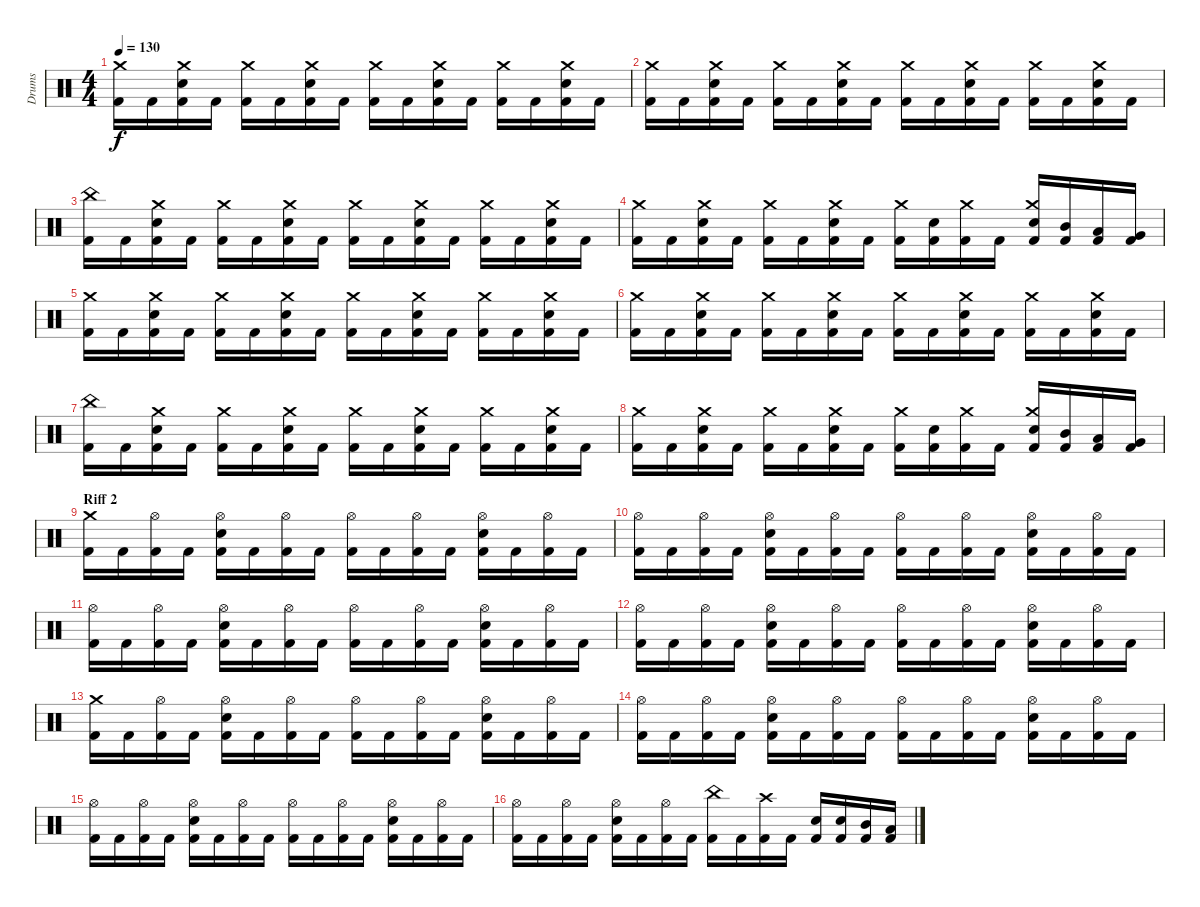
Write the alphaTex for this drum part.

\track ("Drums" "Drums") {instrument percussion}
\staff {score}
\articulation defaults
\ts (4 4)
\tempo 130
\clef neutral
\ks c
("Kick (hit) 2" "Crash medium (hit)").16{dy f} "Kick (hit) 2".16 ("Kick (hit) 2" "Snare (hit) 2" "Crash medium (hit)").16 "Kick (hit) 2".16 ("Kick (hit) 2" "Crash medium (hit)").16 "Kick (hit) 2".16 ("Kick (hit) 2" "Snare (hit) 2" "Crash medium (hit)").16 "Kick (hit) 2".16 ("Kick (hit) 2" "Crash medium (hit)").16 "Kick (hit) 2".16 ("Kick (hit) 2" "Snare (hit) 2" "Crash medium (hit)").16 "Kick (hit) 2".16 ("Kick (hit) 2" "Crash medium (hit)").16 "Kick (hit) 2".16 ("Kick (hit) 2" "Snare (hit) 2" "Crash medium (hit)").16 "Kick (hit) 2".16 |
("Kick (hit) 2" "Crash medium (hit)").16 "Kick (hit) 2".16 ("Kick (hit) 2" "Snare (hit) 2" "Crash medium (hit)").16 "Kick (hit) 2".16 ("Kick (hit) 2" "Crash medium (hit)").16 "Kick (hit) 2".16 ("Kick (hit) 2" "Snare (hit) 2" "Crash medium (hit)").16 "Kick (hit) 2".16 ("Kick (hit) 2" "Crash medium (hit)").16 "Kick (hit) 2".16 ("Kick (hit) 2" "Snare (hit) 2" "Crash medium (hit)").16 "Kick (hit) 2".16 ("Kick (hit) 2" "Crash medium (hit)").16 "Kick (hit) 2".16 ("Kick (hit) 2" "Snare (hit) 2" "Crash medium (hit)").16 "Kick (hit) 2".16 |
("Kick (hit) 2" "China (hit)").16 "Kick (hit) 2".16 ("Kick (hit) 2" "Snare (hit) 2" "Crash medium (hit)").16 "Kick (hit) 2".16 ("Kick (hit) 2" "Crash medium (hit)").16 "Kick (hit) 2".16 ("Kick (hit) 2" "Snare (hit) 2" "Crash medium (hit)").16 "Kick (hit) 2".16 ("Kick (hit) 2" "Crash medium (hit)").16 "Kick (hit) 2".16 ("Kick (hit) 2" "Snare (hit) 2" "Crash medium (hit)").16 "Kick (hit) 2".16 ("Kick (hit) 2" "Crash medium (hit)").16 "Kick (hit) 2".16 ("Kick (hit) 2" "Snare (hit) 2" "Crash medium (hit)").16 "Kick (hit) 2".16 |
("Kick (hit) 2" "Crash medium (hit)").16 "Kick (hit) 2".16 ("Kick (hit) 2" "Snare (hit) 2" "Crash medium (hit)").16 "Kick (hit) 2".16 ("Kick (hit) 2" "Crash medium (hit)").16 "Kick (hit) 2".16 ("Kick (hit) 2" "Snare (hit) 2" "Crash medium (hit)").16 "Kick (hit) 2".16 ("Kick (hit) 2" "Crash medium (hit)").16 ("Kick (hit) 2" "Snare (hit) 2").16 ("Kick (hit) 2" "Crash medium (hit)").16 "Kick (hit) 2".16 ("Kick (hit) 2" "Snare (hit) 2" "Crash medium (hit)").16 ("Kick (hit) 2" "Mid Tom (hit)").16 ("Kick (hit) 2" "Low Tom (hit)").16 ("Kick (hit) 2" "Very Low Tom (hit)").16 |
("Kick (hit) 2" "Crash medium (hit)").16 "Kick (hit) 2".16 ("Kick (hit) 2" "Snare (hit) 2" "Crash medium (hit)").16 "Kick (hit) 2".16 ("Kick (hit) 2" "Crash medium (hit)").16 "Kick (hit) 2".16 ("Kick (hit) 2" "Snare (hit) 2" "Crash medium (hit)").16 "Kick (hit) 2".16 ("Kick (hit) 2" "Crash medium (hit)").16 "Kick (hit) 2".16 ("Kick (hit) 2" "Snare (hit) 2" "Crash medium (hit)").16 "Kick (hit) 2".16 ("Kick (hit) 2" "Crash medium (hit)").16 "Kick (hit) 2".16 ("Kick (hit) 2" "Snare (hit) 2" "Crash medium (hit)").16 "Kick (hit) 2".16 |
("Kick (hit) 2" "Crash medium (hit)").16 "Kick (hit) 2".16 ("Kick (hit) 2" "Snare (hit) 2" "Crash medium (hit)").16 "Kick (hit) 2".16 ("Kick (hit) 2" "Crash medium (hit)").16 "Kick (hit) 2".16 ("Kick (hit) 2" "Snare (hit) 2" "Crash medium (hit)").16 "Kick (hit) 2".16 ("Kick (hit) 2" "Crash medium (hit)").16 "Kick (hit) 2".16 ("Kick (hit) 2" "Snare (hit) 2" "Crash medium (hit)").16 "Kick (hit) 2".16 ("Kick (hit) 2" "Crash medium (hit)").16 "Kick (hit) 2".16 ("Kick (hit) 2" "Snare (hit) 2" "Crash medium (hit)").16 "Kick (hit) 2".16 |
("Kick (hit) 2" "China (hit)").16 "Kick (hit) 2".16 ("Kick (hit) 2" "Snare (hit) 2" "Crash medium (hit)").16 "Kick (hit) 2".16 ("Kick (hit) 2" "Crash medium (hit)").16 "Kick (hit) 2".16 ("Kick (hit) 2" "Snare (hit) 2" "Crash medium (hit)").16 "Kick (hit) 2".16 ("Kick (hit) 2" "Crash medium (hit)").16 "Kick (hit) 2".16 ("Kick (hit) 2" "Snare (hit) 2" "Crash medium (hit)").16 "Kick (hit) 2".16 ("Kick (hit) 2" "Crash medium (hit)").16 "Kick (hit) 2".16 ("Kick (hit) 2" "Snare (hit) 2" "Crash medium (hit)").16 "Kick (hit) 2".16 |
("Kick (hit) 2" "Crash medium (hit)").16 "Kick (hit) 2".16 ("Kick (hit) 2" "Snare (hit) 2" "Crash medium (hit)").16 "Kick (hit) 2".16 ("Kick (hit) 2" "Crash medium (hit)").16 "Kick (hit) 2".16 ("Kick (hit) 2" "Snare (hit) 2" "Crash medium (hit)").16 "Kick (hit) 2".16 ("Kick (hit) 2" "Crash medium (hit)").16 ("Kick (hit) 2" "Snare (hit) 2").16 ("Kick (hit) 2" "Crash medium (hit)").16 "Kick (hit) 2".16 ("Kick (hit) 2" "Snare (hit) 2" "Crash medium (hit)").16 ("Kick (hit) 2" "Mid Tom (hit)").16 ("Kick (hit) 2" "Low Tom (hit)").16 ("Kick (hit) 2" "Very Low Tom (hit)").16 |
\section ("" "Riff 2")
("Kick (hit) 2" "Crash medium (hit)").16 "Kick (hit) 2".16 ("Kick (hit) 2" "Hi-Hat (open)").16 "Kick (hit) 2".16 ("Kick (hit) 2" "Snare (hit) 2" "Hi-Hat (open)").16 "Kick (hit) 2".16 ("Kick (hit) 2" "Hi-Hat (open)").16 "Kick (hit) 2".16 ("Kick (hit) 2" "Hi-Hat (open)").16 "Kick (hit) 2".16 ("Kick (hit) 2" "Hi-Hat (open)").16 "Kick (hit) 2".16 ("Kick (hit) 2" "Snare (hit) 2" "Hi-Hat (open)").16 "Kick (hit) 2".16 ("Kick (hit) 2" "Hi-Hat (open)").16 "Kick (hit) 2".16 |
("Kick (hit) 2" "Hi-Hat (open)").16 "Kick (hit) 2".16 ("Kick (hit) 2" "Hi-Hat (open)").16 "Kick (hit) 2".16 ("Kick (hit) 2" "Snare (hit) 2" "Hi-Hat (open)").16 "Kick (hit) 2".16 ("Kick (hit) 2" "Hi-Hat (open)").16 "Kick (hit) 2".16 ("Kick (hit) 2" "Hi-Hat (open)").16 "Kick (hit) 2".16 ("Kick (hit) 2" "Hi-Hat (open)").16 "Kick (hit) 2".16 ("Kick (hit) 2" "Snare (hit) 2" "Hi-Hat (open)").16 "Kick (hit) 2".16 ("Kick (hit) 2" "Hi-Hat (open)").16 "Kick (hit) 2".16 |
("Kick (hit) 2" "Hi-Hat (open)").16 "Kick (hit) 2".16 ("Kick (hit) 2" "Hi-Hat (open)").16 "Kick (hit) 2".16 ("Kick (hit) 2" "Snare (hit) 2" "Hi-Hat (open)").16 "Kick (hit) 2".16 ("Kick (hit) 2" "Hi-Hat (open)").16 "Kick (hit) 2".16 ("Kick (hit) 2" "Hi-Hat (open)").16 "Kick (hit) 2".16 ("Kick (hit) 2" "Hi-Hat (open)").16 "Kick (hit) 2".16 ("Kick (hit) 2" "Snare (hit) 2" "Hi-Hat (open)").16 "Kick (hit) 2".16 ("Kick (hit) 2" "Hi-Hat (open)").16 "Kick (hit) 2".16 |
("Kick (hit) 2" "Hi-Hat (open)").16 "Kick (hit) 2".16 ("Kick (hit) 2" "Hi-Hat (open)").16 "Kick (hit) 2".16 ("Kick (hit) 2" "Snare (hit) 2" "Hi-Hat (open)").16 "Kick (hit) 2".16 ("Kick (hit) 2" "Hi-Hat (open)").16 "Kick (hit) 2".16 ("Kick (hit) 2" "Hi-Hat (open)").16 "Kick (hit) 2".16 ("Kick (hit) 2" "Hi-Hat (open)").16 "Kick (hit) 2".16 ("Kick (hit) 2" "Snare (hit) 2" "Hi-Hat (open)").16 "Kick (hit) 2".16 ("Kick (hit) 2" "Hi-Hat (open)").16 "Kick (hit) 2".16 |
("Kick (hit) 2" "Crash medium (hit)").16 "Kick (hit) 2".16 ("Kick (hit) 2" "Hi-Hat (open)").16 "Kick (hit) 2".16 ("Kick (hit) 2" "Snare (hit) 2" "Hi-Hat (open)").16 "Kick (hit) 2".16 ("Kick (hit) 2" "Hi-Hat (open)").16 "Kick (hit) 2".16 ("Kick (hit) 2" "Hi-Hat (open)").16 "Kick (hit) 2".16 ("Kick (hit) 2" "Hi-Hat (open)").16 "Kick (hit) 2".16 ("Kick (hit) 2" "Snare (hit) 2" "Hi-Hat (open)").16 "Kick (hit) 2".16 ("Kick (hit) 2" "Hi-Hat (open)").16 "Kick (hit) 2".16 |
("Kick (hit) 2" "Hi-Hat (open)").16 "Kick (hit) 2".16 ("Kick (hit) 2" "Hi-Hat (open)").16 "Kick (hit) 2".16 ("Kick (hit) 2" "Snare (hit) 2" "Hi-Hat (open)").16 "Kick (hit) 2".16 ("Kick (hit) 2" "Hi-Hat (open)").16 "Kick (hit) 2".16 ("Kick (hit) 2" "Hi-Hat (open)").16 "Kick (hit) 2".16 ("Kick (hit) 2" "Hi-Hat (open)").16 "Kick (hit) 2".16 ("Kick (hit) 2" "Snare (hit) 2" "Hi-Hat (open)").16 "Kick (hit) 2".16 ("Kick (hit) 2" "Hi-Hat (open)").16 "Kick (hit) 2".16 |
("Kick (hit) 2" "Hi-Hat (open)").16 "Kick (hit) 2".16 ("Kick (hit) 2" "Hi-Hat (open)").16 "Kick (hit) 2".16 ("Kick (hit) 2" "Snare (hit) 2" "Hi-Hat (open)").16 "Kick (hit) 2".16 ("Kick (hit) 2" "Hi-Hat (open)").16 "Kick (hit) 2".16 ("Kick (hit) 2" "Hi-Hat (open)").16 "Kick (hit) 2".16 ("Kick (hit) 2" "Hi-Hat (open)").16 "Kick (hit) 2".16 ("Kick (hit) 2" "Snare (hit) 2" "Hi-Hat (open)").16 "Kick (hit) 2".16 ("Kick (hit) 2" "Hi-Hat (open)").16 "Kick (hit) 2".16 |
("Kick (hit) 2" "Hi-Hat (open)").16 "Kick (hit) 2".16 ("Kick (hit) 2" "Hi-Hat (open)").16 "Kick (hit) 2".16 ("Kick (hit) 2" "Snare (hit) 2" "Hi-Hat (open)").16 "Kick (hit) 2".16 ("Kick (hit) 2" "Hi-Hat (open)").16 "Kick (hit) 2".16 ("Kick (hit) 2" "China (hit)").16 "Kick (hit) 2".16 ("Kick (hit) 2" "Crash high (hit)").16 "Kick (hit) 2".16 ("Kick (hit) 2" "Snare (hit) 2").16 ("Kick (hit) 2" "Snare (hit) 2").16 ("Kick (hit) 2" "Mid Tom (hit)").16 ("Kick (hit) 2" "Low Tom (hit)").16
